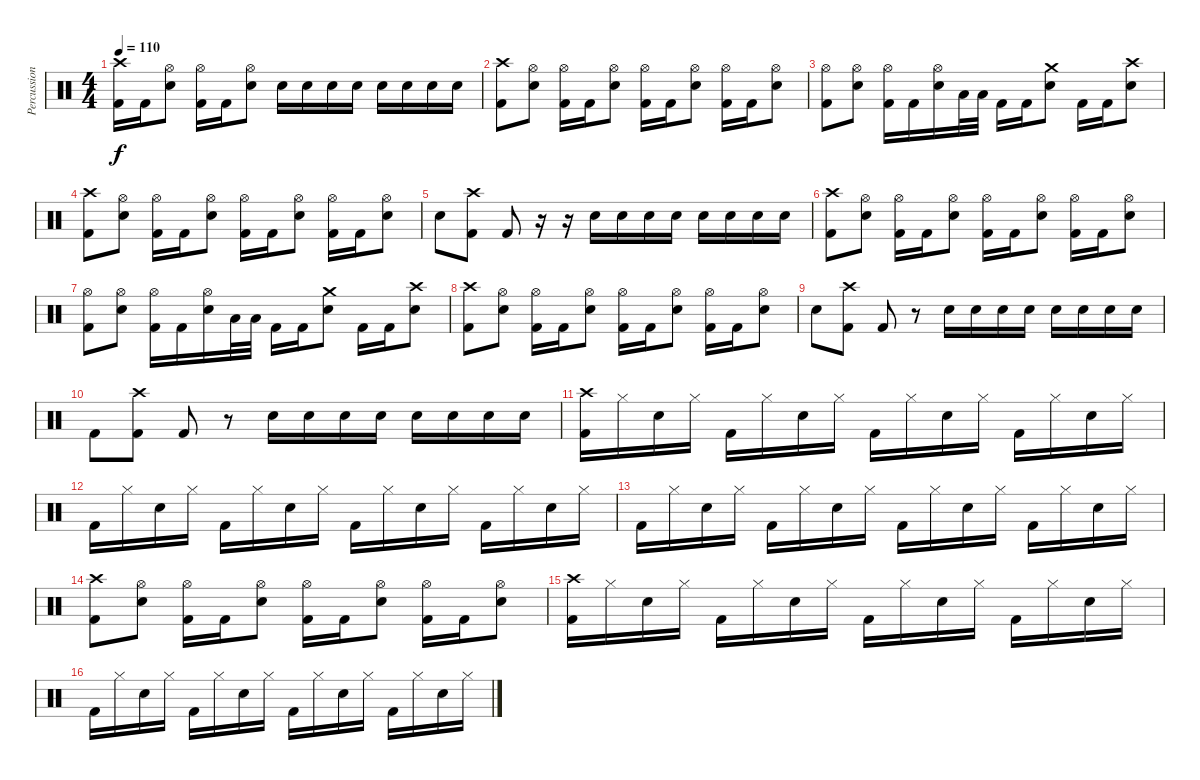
\track ("Percussion" "Percussion") {instrument percussion}
\staff {score}
\articulation defaults
\ts (4 4)
\tempo 110
\clef neutral
\ks c
("Crash high (hit)" "Kick (hit) 2").16{dy f} "Kick (hit) 2".16 ("Hi-Hat (open)" "Electric Snare (hit)").8 ("Hi-Hat (open)" "Kick (hit) 2").16 "Kick (hit) 2".16 ("Hi-Hat (open)" "Electric Snare (hit)").8 "Electric Snare (hit)".16 "Electric Snare (hit)".16 "Electric Snare (hit)".16 "Electric Snare (hit)".16 "Electric Snare (hit)".16 "Electric Snare (hit)".16 "Electric Snare (hit)".16 "Electric Snare (hit)".16 |
("Crash high (hit)" "Kick (hit) 2").8 ("Hi-Hat (open)" "Electric Snare (hit)").8 ("Hi-Hat (open)" "Kick (hit) 2").16 "Kick (hit) 2".16 ("Hi-Hat (open)" "Electric Snare (hit)").8 ("Hi-Hat (open)" "Kick (hit) 2").16 "Kick (hit) 2".16 ("Hi-Hat (open)" "Electric Snare (hit)").8 ("Hi-Hat (open)" "Kick (hit) 2").16 "Kick (hit) 2".16 ("Hi-Hat (open)" "Electric Snare (hit)").8 |
("Hi-Hat (open)" "Kick (hit) 2").8 ("Hi-Hat (open)" "Electric Snare (hit)").8 ("Hi-Hat (open)" "Kick (hit) 2").16 "Kick (hit) 2".16 ("Hi-Hat (open)" "Electric Snare (hit)").16 "Low Tom (hit)".32 "Low Tom (hit)".32 "Kick (hit) 2".16 "Kick (hit) 2".16 ("Crash medium (hit)" "Electric Snare (hit)").8 "Kick (hit) 2".16 "Kick (hit) 2".16 ("Crash high (hit)" "Electric Snare (hit)").8 |
("Crash high (hit)" "Kick (hit) 2").8 ("Hi-Hat (open)" "Electric Snare (hit)").8 ("Hi-Hat (open)" "Kick (hit) 2").16 "Kick (hit) 2".16 ("Hi-Hat (open)" "Electric Snare (hit)").8 ("Hi-Hat (open)" "Kick (hit) 2").16 "Kick (hit) 2".16 ("Hi-Hat (open)" "Electric Snare (hit)").8 ("Hi-Hat (open)" "Kick (hit) 2").16 "Kick (hit) 2".16 ("Hi-Hat (open)" "Electric Snare (hit)").8 |
"Electric Snare (hit)".8 ("Crash high (hit)" "Kick (hit) 2").8 "Kick (hit) 2".8 r.16 r.16 "Electric Snare (hit)".16 "Electric Snare (hit)".16 "Electric Snare (hit)".16 "Electric Snare (hit)".16 "Electric Snare (hit)".16 "Electric Snare (hit)".16 "Electric Snare (hit)".16 "Electric Snare (hit)".16 |
("Crash high (hit)" "Kick (hit) 2").8 ("Hi-Hat (open)" "Electric Snare (hit)").8 ("Hi-Hat (open)" "Kick (hit) 2").16 "Kick (hit) 2".16 ("Hi-Hat (open)" "Electric Snare (hit)").8 ("Hi-Hat (open)" "Kick (hit) 2").16 "Kick (hit) 2".16 ("Hi-Hat (open)" "Electric Snare (hit)").8 ("Hi-Hat (open)" "Kick (hit) 2").16 "Kick (hit) 2".16 ("Hi-Hat (open)" "Electric Snare (hit)").8 |
("Hi-Hat (open)" "Kick (hit) 2").8 ("Hi-Hat (open)" "Electric Snare (hit)").8 ("Hi-Hat (open)" "Kick (hit) 2").16 "Kick (hit) 2".16 ("Hi-Hat (open)" "Electric Snare (hit)").16 "Low Tom (hit)".32 "Low Tom (hit)".32 "Kick (hit) 2".16 "Kick (hit) 2".16 ("Crash medium (hit)" "Electric Snare (hit)").8 "Kick (hit) 2".16 "Kick (hit) 2".16 ("Crash high (hit)" "Electric Snare (hit)").8 |
("Crash high (hit)" "Kick (hit) 2").8 ("Hi-Hat (open)" "Electric Snare (hit)").8 ("Hi-Hat (open)" "Kick (hit) 2").16 "Kick (hit) 2".16 ("Hi-Hat (open)" "Electric Snare (hit)").8 ("Hi-Hat (open)" "Kick (hit) 2").16 "Kick (hit) 2".16 ("Hi-Hat (open)" "Electric Snare (hit)").8 ("Hi-Hat (open)" "Kick (hit) 2").16 "Kick (hit) 2".16 ("Hi-Hat (open)" "Electric Snare (hit)").8 |
"Electric Snare (hit)".8 ("Crash high (hit)" "Kick (hit) 2").8 "Kick (hit) 2".8 r.8 "Electric Snare (hit)".16 "Electric Snare (hit)".16 "Electric Snare (hit)".16 "Electric Snare (hit)".16 "Electric Snare (hit)".16 "Electric Snare (hit)".16 "Electric Snare (hit)".16 "Electric Snare (hit)".16 |
"Kick (hit) 2".8 ("Crash high (hit)" "Kick (hit) 2").8 "Kick (hit) 2".8 r.8 "Electric Snare (hit)".16 "Electric Snare (hit)".16 "Electric Snare (hit)".16 "Electric Snare (hit)".16 "Electric Snare (hit)".16 "Electric Snare (hit)".16 "Electric Snare (hit)".16 "Electric Snare (hit)".16 |
("Crash high (hit)" "Kick (hit) 2").16 "Hi-Hat (closed)".16 "Electric Snare (hit)".16 "Hi-Hat (closed)".16 "Kick (hit) 2".16 "Hi-Hat (closed)".16 "Electric Snare (hit)".16 "Hi-Hat (closed)".16 "Kick (hit) 2".16 "Hi-Hat (closed)".16 "Electric Snare (hit)".16 "Hi-Hat (closed)".16 "Kick (hit) 2".16 "Hi-Hat (closed)".16 "Electric Snare (hit)".16 "Hi-Hat (closed)".16 |
"Kick (hit) 2".16 "Hi-Hat (closed)".16 "Electric Snare (hit)".16 "Hi-Hat (closed)".16 "Kick (hit) 2".16 "Hi-Hat (closed)".16 "Electric Snare (hit)".16 "Hi-Hat (closed)".16 "Kick (hit) 2".16 "Hi-Hat (closed)".16 "Electric Snare (hit)".16 "Hi-Hat (closed)".16 "Kick (hit) 2".16 "Hi-Hat (closed)".16 "Electric Snare (hit)".16 "Hi-Hat (closed)".16 |
"Kick (hit) 2".16 "Hi-Hat (closed)".16 "Electric Snare (hit)".16 "Hi-Hat (closed)".16 "Kick (hit) 2".16 "Hi-Hat (closed)".16 "Electric Snare (hit)".16 "Hi-Hat (closed)".16 "Kick (hit) 2".16 "Hi-Hat (closed)".16 "Electric Snare (hit)".16 "Hi-Hat (closed)".16 "Kick (hit) 2".16 "Hi-Hat (closed)".16 "Electric Snare (hit)".16 "Hi-Hat (closed)".16 |
("Crash high (hit)" "Kick (hit) 2").8 ("Hi-Hat (open)" "Electric Snare (hit)").8 ("Hi-Hat (open)" "Kick (hit) 2").16 "Kick (hit) 2".16 ("Hi-Hat (open)" "Electric Snare (hit)").8 ("Hi-Hat (open)" "Kick (hit) 2").16 "Kick (hit) 2".16 ("Hi-Hat (open)" "Electric Snare (hit)").8 ("Hi-Hat (open)" "Kick (hit) 2").16 "Kick (hit) 2".16 ("Hi-Hat (open)" "Electric Snare (hit)").8 |
("Crash high (hit)" "Kick (hit) 2").16 "Hi-Hat (closed)".16 "Electric Snare (hit)".16 "Hi-Hat (closed)".16 "Kick (hit) 2".16 "Hi-Hat (closed)".16 "Electric Snare (hit)".16 "Hi-Hat (closed)".16 "Kick (hit) 2".16 "Hi-Hat (closed)".16 "Electric Snare (hit)".16 "Hi-Hat (closed)".16 "Kick (hit) 2".16 "Hi-Hat (closed)".16 "Electric Snare (hit)".16 "Hi-Hat (closed)".16 |
"Kick (hit) 2".16 "Hi-Hat (closed)".16 "Electric Snare (hit)".16 "Hi-Hat (closed)".16 "Kick (hit) 2".16 "Hi-Hat (closed)".16 "Electric Snare (hit)".16 "Hi-Hat (closed)".16 "Kick (hit) 2".16 "Hi-Hat (closed)".16 "Electric Snare (hit)".16 "Hi-Hat (closed)".16 "Kick (hit) 2".16 "Hi-Hat (closed)".16 "Electric Snare (hit)".16 "Hi-Hat (closed)".16
